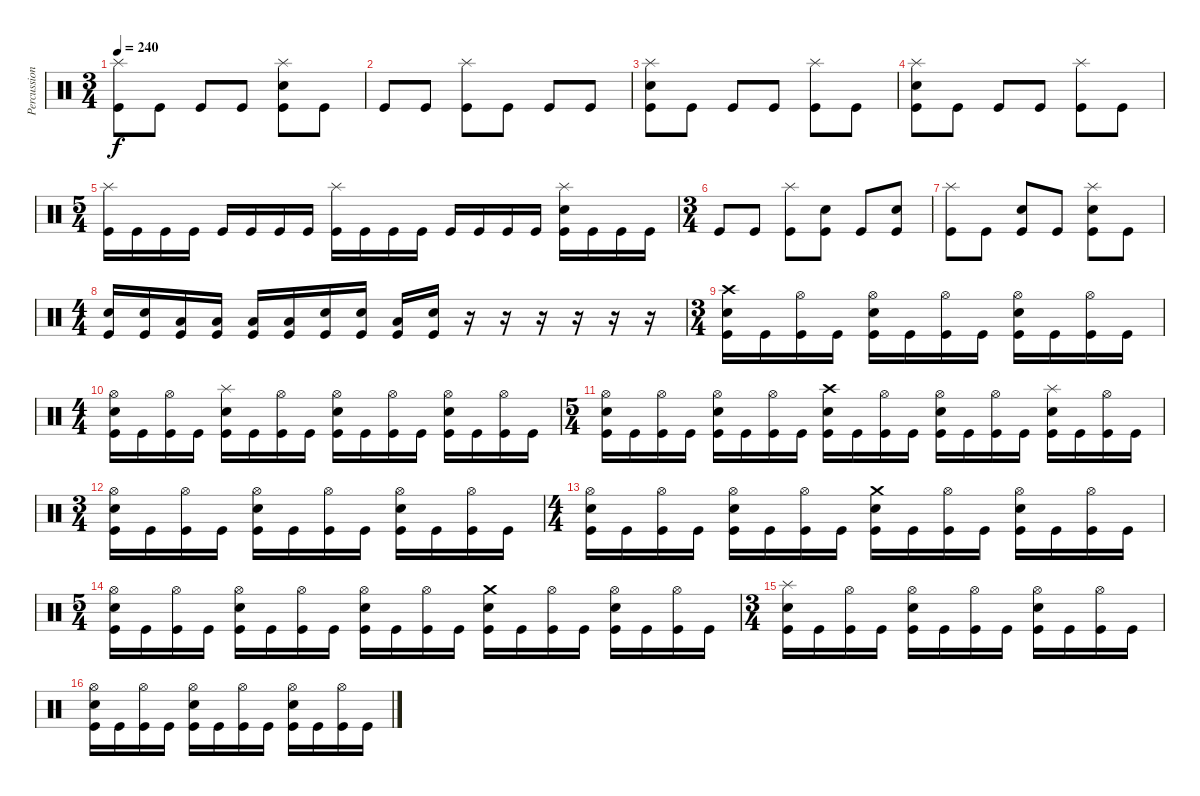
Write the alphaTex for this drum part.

\track ("Percussion" "Percussion") {instrument percussion}
\staff {score}
\articulation defaults
\ts (3 4)
\tempo 240
\clef neutral
\ks c
("Splash (hit)" "Kick (hit)").8{dy f} "Kick (hit)".8 "Kick (hit)".8 "Kick (hit)".8 ("Splash (hit)" "Snare (hit) 2" "Kick (hit)").8 "Kick (hit)".8 |
"Kick (hit)".8 "Kick (hit)".8 ("Splash (hit)" "Kick (hit)").8 "Kick (hit)".8 "Kick (hit)".8 "Kick (hit)".8 |
("Splash (hit)" "Snare (hit) 2" "Kick (hit)").8 "Kick (hit)".8 "Kick (hit)".8 "Kick (hit)".8 ("Splash (hit)" "Kick (hit)").8 "Kick (hit)".8 |
("Splash (hit)" "Snare (hit) 2" "Kick (hit)").8 "Kick (hit)".8 "Kick (hit)".8 "Kick (hit)".8 ("Splash (hit)" "Kick (hit)").8 "Kick (hit)".8 |
\ts (5 4)
("Splash (hit)" "Kick (hit)").16 "Kick (hit)".16 "Kick (hit)".16 "Kick (hit)".16 "Kick (hit)".16 "Kick (hit)".16 "Kick (hit)".16 "Kick (hit)".16 ("Splash (hit)" "Kick (hit)").16 "Kick (hit)".16 "Kick (hit)".16 "Kick (hit)".16 "Kick (hit)".16 "Kick (hit)".16 "Kick (hit)".16 "Kick (hit)".16 ("Splash (hit)" "Snare (hit) 2" "Kick (hit)").16 "Kick (hit)".16 "Kick (hit)".16 "Kick (hit)".16 |
\ts (3 4)
"Kick (hit)".8 "Kick (hit)".8 ("Splash (hit)" "Kick (hit)").8 ("Snare (hit) 2" "Kick (hit)").8 "Kick (hit)".8 ("Snare (hit) 2" "Kick (hit)").8 |
("Splash (hit)" "Kick (hit)").8 "Kick (hit)".8 ("Snare (hit) 2" "Kick (hit)").8 "Kick (hit)".8 ("Splash (hit)" "Snare (hit) 2" "Kick (hit)").8 "Kick (hit)".8 |
\ts (4 4)
("Snare (hit) 2" "Kick (hit)").16 ("Snare (hit) 2" "Kick (hit)").16 ("Low Tom (hit)" "Kick (hit)").16 ("Low Tom (hit)" "Kick (hit)").16 ("Low Tom (hit)" "Kick (hit)").16 ("Low Tom (hit)" "Kick (hit)").16 ("Snare (hit) 2" "Kick (hit)").16 ("Snare (hit) 2" "Kick (hit)").16 ("Low Tom (hit)" "Kick (hit)").16 ("Snare (hit) 2" "Kick (hit)").16 r.16 r.16 r.16 r.16 r.16 r.16 |
\ts (3 4)
("Crash high (hit)" "Snare (hit) 2" "Kick (hit)").16 "Kick (hit)".16 ("Hi-Hat (open)" "Kick (hit)").16 "Kick (hit)".16 ("Hi-Hat (open)" "Snare (hit) 2" "Kick (hit)").16 "Kick (hit)".16 ("Hi-Hat (open)" "Kick (hit)").16 "Kick (hit)".16 ("Hi-Hat (open)" "Snare (hit) 2" "Kick (hit)").16 "Kick (hit)".16 ("Hi-Hat (open)" "Kick (hit)").16 "Kick (hit)".16 |
\ts (4 4)
("Hi-Hat (open)" "Snare (hit) 2" "Kick (hit)").16 "Kick (hit)".16 ("Hi-Hat (open)" "Kick (hit)").16 "Kick (hit)".16 ("Splash (hit)" "Snare (hit) 2" "Kick (hit)").16 "Kick (hit)".16 ("Hi-Hat (open)" "Kick (hit)").16 "Kick (hit)".16 ("Hi-Hat (open)" "Snare (hit) 2" "Kick (hit)").16 "Kick (hit)".16 ("Hi-Hat (open)" "Kick (hit)").16 "Kick (hit)".16 ("Hi-Hat (open)" "Snare (hit) 2" "Kick (hit)").16 "Kick (hit)".16 ("Hi-Hat (open)" "Kick (hit)").16 "Kick (hit)".16 |
\ts (5 4)
("Hi-Hat (open)" "Snare (hit) 2" "Kick (hit)").16 "Kick (hit)".16 ("Hi-Hat (open)" "Kick (hit)").16 "Kick (hit)".16 ("Hi-Hat (open)" "Snare (hit) 2" "Kick (hit)").16 "Kick (hit)".16 ("Hi-Hat (open)" "Kick (hit)").16 "Kick (hit)".16 ("Crash high (hit)" "Snare (hit) 2" "Kick (hit)").16 "Kick (hit)".16 ("Hi-Hat (open)" "Kick (hit)").16 "Kick (hit)".16 ("Hi-Hat (open)" "Snare (hit) 2" "Kick (hit)").16 "Kick (hit)".16 ("Hi-Hat (open)" "Kick (hit)").16 "Kick (hit)".16 ("Splash (hit)" "Snare (hit) 2" "Kick (hit)").16 "Kick (hit)".16 ("Hi-Hat (open)" "Kick (hit)").16 "Kick (hit)".16 |
\ts (3 4)
("Hi-Hat (open)" "Snare (hit) 2" "Kick (hit)").16 "Kick (hit)".16 ("Hi-Hat (open)" "Kick (hit)").16 "Kick (hit)".16 ("Hi-Hat (open)" "Snare (hit) 2" "Kick (hit)").16 "Kick (hit)".16 ("Hi-Hat (open)" "Kick (hit)").16 "Kick (hit)".16 ("Hi-Hat (open)" "Snare (hit) 2" "Kick (hit)").16 "Kick (hit)".16 ("Hi-Hat (open)" "Kick (hit)").16 "Kick (hit)".16 |
\ts (4 4)
("Hi-Hat (open)" "Snare (hit) 2" "Kick (hit)").16 "Kick (hit)".16 ("Hi-Hat (open)" "Kick (hit)").16 "Kick (hit)".16 ("Hi-Hat (open)" "Snare (hit) 2" "Kick (hit)").16 "Kick (hit)".16 ("Hi-Hat (open)" "Kick (hit)").16 "Kick (hit)".16 ("Crash medium (hit)" "Snare (hit) 2" "Kick (hit)").16 "Kick (hit)".16 ("Hi-Hat (open)" "Kick (hit)").16 "Kick (hit)".16 ("Hi-Hat (open)" "Snare (hit) 2" "Kick (hit)").16 "Kick (hit)".16 ("Hi-Hat (open)" "Kick (hit)").16 "Kick (hit)".16 |
\ts (5 4)
("Hi-Hat (open)" "Snare (hit) 2" "Kick (hit)").16 "Kick (hit)".16 ("Hi-Hat (open)" "Kick (hit)").16 "Kick (hit)".16 ("Hi-Hat (open)" "Snare (hit) 2" "Kick (hit)").16 "Kick (hit)".16 ("Hi-Hat (open)" "Kick (hit)").16 "Kick (hit)".16 ("Hi-Hat (open)" "Snare (hit) 2" "Kick (hit)").16 "Kick (hit)".16 ("Hi-Hat (open)" "Kick (hit)").16 "Kick (hit)".16 ("Crash medium (hit)" "Snare (hit) 2" "Kick (hit)").16 "Kick (hit)".16 ("Hi-Hat (open)" "Kick (hit)").16 "Kick (hit)".16 ("Hi-Hat (open)" "Snare (hit) 2" "Kick (hit)").16 "Kick (hit)".16 ("Hi-Hat (open)" "Kick (hit)").16 "Kick (hit)".16 |
\ts (3 4)
("Splash (hit)" "Snare (hit) 2" "Kick (hit)").16 "Kick (hit)".16 ("Hi-Hat (open)" "Kick (hit)").16 "Kick (hit)".16 ("Hi-Hat (open)" "Snare (hit) 2" "Kick (hit)").16 "Kick (hit)".16 ("Hi-Hat (open)" "Kick (hit)").16 "Kick (hit)".16 ("Hi-Hat (open)" "Snare (hit) 2" "Kick (hit)").16 "Kick (hit)".16 ("Hi-Hat (open)" "Kick (hit)").16 "Kick (hit)".16 |
("Hi-Hat (open)" "Snare (hit) 2" "Kick (hit)").16 "Kick (hit)".16 ("Hi-Hat (open)" "Kick (hit)").16 "Kick (hit)".16 ("Hi-Hat (open)" "Snare (hit) 2" "Kick (hit)").16 "Kick (hit)".16 ("Hi-Hat (open)" "Kick (hit)").16 "Kick (hit)".16 ("Hi-Hat (open)" "Snare (hit) 2" "Kick (hit)").16 "Kick (hit)".16 ("Hi-Hat (open)" "Kick (hit)").16 "Kick (hit)".16
